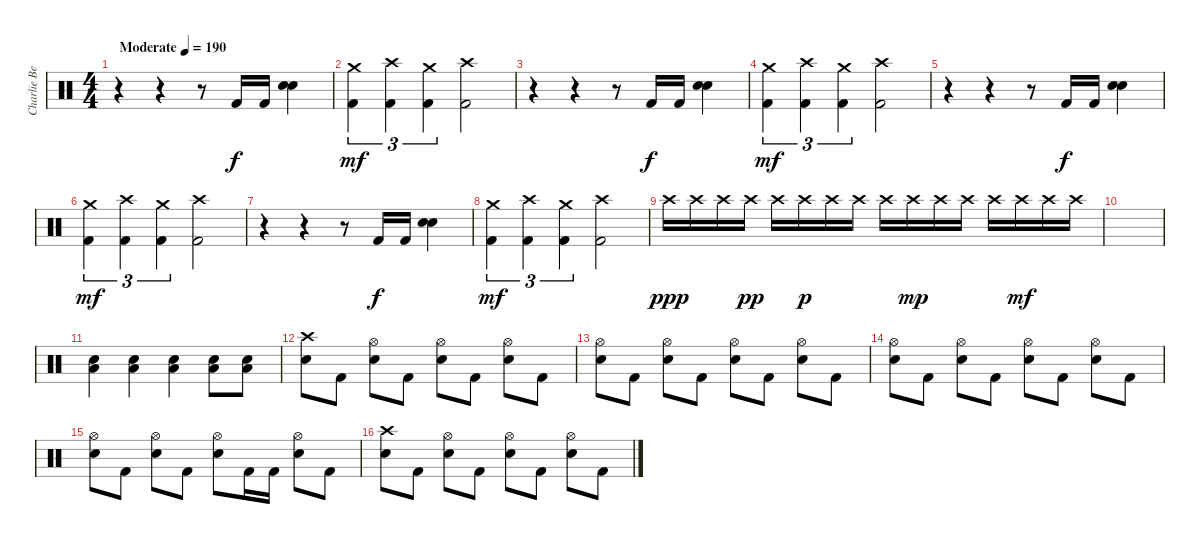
\track ("Charlie Benante" "Charlie Be") {instrument percussion}
\staff {score}
\articulation defaults
\ts (4 4)
\tempo (190 "Moderate")
\clef neutral
\ks c
r.4{dy f} r.4 r.8 "Kick (hit) 2".16 "Kick (hit) 2".16 ("Snare (hit) 2" "Snare (hit) 2").4{bd 480} |
("Kick (hit) 2" "Crash medium (hit)").4{tu (3 2) dy mf} ("Kick (hit) 2" "Crash high (hit)").4{tu (3 2)} ("Kick (hit) 2" "Crash medium (hit)").4{tu (3 2)} ("Kick (hit) 2" "Crash high (hit)").2 |
r.4 r.4 r.8 "Kick (hit) 2".16{dy f} "Kick (hit) 2".16 ("Snare (hit) 2" "Snare (hit) 2").4{bd 480} |
("Kick (hit) 2" "Crash medium (hit)").4{tu (3 2) dy mf} ("Kick (hit) 2" "Crash high (hit)").4{tu (3 2)} ("Kick (hit) 2" "Crash medium (hit)").4{tu (3 2)} ("Kick (hit) 2" "Crash high (hit)").2 |
r.4 r.4 r.8 "Kick (hit) 2".16{dy f} "Kick (hit) 2".16 ("Snare (hit) 2" "Snare (hit) 2").4{bd 480} |
("Kick (hit) 2" "Crash medium (hit)").4{tu (3 2) dy mf} ("Kick (hit) 2" "Crash high (hit)").4{tu (3 2)} ("Kick (hit) 2" "Crash medium (hit)").4{tu (3 2)} ("Kick (hit) 2" "Crash high (hit)").2 |
r.4 r.4 r.8 "Kick (hit) 2".16{dy f} "Kick (hit) 2".16 ("Snare (hit) 2" "Snare (hit) 2").4{bd 480} |
("Kick (hit) 2" "Crash medium (hit)").4{tu (3 2) dy mf} ("Kick (hit) 2" "Crash high (hit)").4{tu (3 2)} ("Kick (hit) 2" "Crash medium (hit)").4{tu (3 2)} ("Kick (hit) 2" "Crash high (hit)").2 |
"Crash high (hit)".16{dy ppp} "Crash high (hit)".16 "Crash high (hit)".16 "Crash high (hit)".16{dy pp} "Crash high (hit)".16 "Crash high (hit)".16{dy p} "Crash high (hit)".16 "Crash high (hit)".16 "Crash high (hit)".16 "Crash high (hit)".16{dy mp} "Crash high (hit)".16 "Crash high (hit)".16 "Crash high (hit)".16 "Crash high (hit)".16{dy mf} "Crash high (hit)".16 "Crash high (hit)".16 |
|
("Snare (hit) 2" "Low Floor Tom (hit)").4 ("Snare (hit) 2" "Low Floor Tom (hit)").4 ("Snare (hit) 2" "Low Floor Tom (hit)").4 ("Snare (hit) 2" "Low Floor Tom (hit)").8 ("Snare (hit) 2" "Low Floor Tom (hit)").8 |
("Snare (hit) 2" "Crash high (hit)").8 "Kick (hit) 2".8 ("Snare (hit) 2" "Hi-Hat (open)").8 "Kick (hit) 2".8 ("Snare (hit) 2" "Hi-Hat (open)").8 "Kick (hit) 2".8 ("Snare (hit) 2" "Hi-Hat (open)").8 "Kick (hit) 2".8 |
("Snare (hit) 2" "Hi-Hat (open)").8 "Kick (hit) 2".8 ("Snare (hit) 2" "Hi-Hat (open)").8 "Kick (hit) 2".8 ("Snare (hit) 2" "Hi-Hat (open)").8 "Kick (hit) 2".8 ("Snare (hit) 2" "Hi-Hat (open)").8 "Kick (hit) 2".8 |
("Snare (hit) 2" "Hi-Hat (open)").8 "Kick (hit) 2".8 ("Snare (hit) 2" "Hi-Hat (open)").8 "Kick (hit) 2".8 ("Snare (hit) 2" "Hi-Hat (open)").8 "Kick (hit) 2".8 ("Snare (hit) 2" "Hi-Hat (open)").8 "Kick (hit) 2".8 |
("Snare (hit) 2" "Hi-Hat (open)").8 "Kick (hit) 2".8 ("Snare (hit) 2" "Hi-Hat (open)").8 "Kick (hit) 2".8 ("Snare (hit) 2" "Hi-Hat (open)").8 "Kick (hit) 2".16 "Kick (hit) 2".16 ("Snare (hit) 2" "Hi-Hat (open)").8 "Kick (hit) 2".8 |
("Snare (hit) 2" "Crash high (hit)").8 "Kick (hit) 2".8 ("Snare (hit) 2" "Hi-Hat (open)").8 "Kick (hit) 2".8 ("Snare (hit) 2" "Hi-Hat (open)").8 "Kick (hit) 2".8 ("Snare (hit) 2" "Hi-Hat (open)").8 "Kick (hit) 2".8
